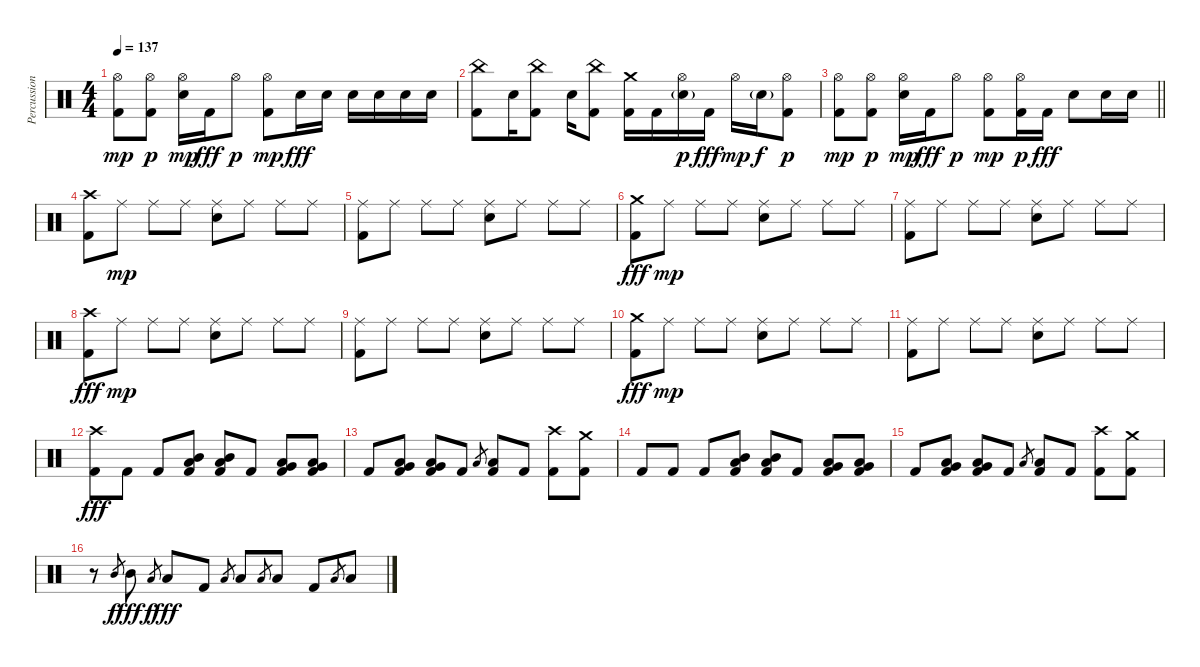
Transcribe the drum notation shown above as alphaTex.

\track ("Percussion" "Percussion") {instrument percussion}
\staff {score}
\articulation defaults
\ts (4 4)
\tempo 137
\clef neutral
\ks c
("Kick (hit) 2" "Hi-Hat (open)").8{dy mp} ("Kick (hit) 2" "Hi-Hat (open)").8{dy p} ("Electric Snare (hit)" "Hi-Hat (open)").16{dy mp} "Kick (hit) 2".16{dy fff} "Hi-Hat (open)".8{dy p} ("Kick (hit) 2" "Hi-Hat (open)").8{dy mp} "Electric Snare (hit)".16{dy fff} "Electric Snare (hit)".16 "Electric Snare (hit)".16 "Electric Snare (hit)".16 "Electric Snare (hit)".16 "Electric Snare (hit)".16 |
("Kick (hit) 2" "China (hit)").8 "Electric Snare (hit)".16 ("Kick (hit) 2" "China (hit)").8 "Electric Snare (hit)".16 ("Kick (hit) 2" "China (hit)").8 ("Kick (hit) 2" "Crash medium (hit)").16 "Kick (hit) 2".16 ("Electric Snare (hit)"{g} "Hi-Hat (open)").16{dy p} "Kick (hit) 2".16{dy fff} "Hi-Hat (open)".16{dy mp} "Electric Snare (hit)"{g}.16{dy f} ("Kick (hit) 2" "Hi-Hat (open)").8{dy p} |
\barLineRight lightlight
("Kick (hit) 2" "Hi-Hat (open)").8{dy mp} ("Kick (hit) 2" "Hi-Hat (open)").8{dy p} ("Electric Snare (hit)" "Hi-Hat (open)").16{dy mp} "Kick (hit) 2".16{dy fff} "Hi-Hat (open)".8{dy p} ("Kick (hit) 2" "Hi-Hat (open)").8{dy mp} ("Kick (hit) 2" "Hi-Hat (open)").16{dy p} "Kick (hit) 2".16{dy fff} "Electric Snare (hit)".8 "Electric Snare (hit)".16 "Electric Snare (hit)".16 |
("Kick (hit) 2" "Crash high (hit)").8 "Ride (middle)".8{dy mp} "Ride (middle)".8 "Ride (middle)".8 ("Electric Snare (hit)" "Ride (middle)").8 "Ride (middle)".8 "Ride (middle)".8 "Ride (middle)".8 |
("Kick (hit) 2" "Ride (middle)").8 "Ride (middle)".8 "Ride (middle)".8 "Ride (middle)".8 ("Electric Snare (hit)" "Ride (middle)").8 "Ride (middle)".8 "Ride (middle)".8 "Ride (middle)".8 |
("Kick (hit) 2" "Crash medium (hit)").8{dy fff} "Ride (middle)".8{dy mp} "Ride (middle)".8 "Ride (middle)".8 ("Electric Snare (hit)" "Ride (middle)").8 "Ride (middle)".8 "Ride (middle)".8 "Ride (middle)".8 |
("Kick (hit) 2" "Ride (middle)").8 "Ride (middle)".8 "Ride (middle)".8 "Ride (middle)".8 ("Electric Snare (hit)" "Ride (middle)").8 "Ride (middle)".8 "Ride (middle)".8 "Ride (middle)".8 |
("Kick (hit) 2" "Crash high (hit)").8{dy fff} "Ride (middle)".8{dy mp} "Ride (middle)".8 "Ride (middle)".8 ("Electric Snare (hit)" "Ride (middle)").8 "Ride (middle)".8 "Ride (middle)".8 "Ride (middle)".8 |
("Kick (hit) 2" "Ride (middle)").8 "Ride (middle)".8 "Ride (middle)".8 "Ride (middle)".8 ("Electric Snare (hit)" "Ride (middle)").8 "Ride (middle)".8 "Ride (middle)".8 "Ride (middle)".8 |
("Kick (hit) 2" "Crash medium (hit)").8{dy fff} "Ride (middle)".8{dy mp} "Ride (middle)".8 "Ride (middle)".8 ("Electric Snare (hit)" "Ride (middle)").8 "Ride (middle)".8 "Ride (middle)".8 "Ride (middle)".8 |
("Kick (hit) 2" "Ride (middle)").8 "Ride (middle)".8 "Ride (middle)".8 "Ride (middle)".8 ("Electric Snare (hit)" "Ride (middle)").8 "Ride (middle)".8 "Ride (middle)".8 "Ride (middle)".8 |
("Kick (hit) 2" "Crash high (hit)").8{dy fff} "Kick (hit) 2".8 "Kick (hit) 2".8 ("Kick (hit) 2" "Mid Tom (hit)" "Low Tom (hit)").8 ("Kick (hit) 2" "Mid Tom (hit)" "Low Tom (hit)").8 "Kick (hit) 2".8 ("Kick (hit) 2" "Low Tom (hit)" "Very Low Tom (hit)").8 ("Kick (hit) 2" "Low Tom (hit)" "Very Low Tom (hit)").8 |
"Kick (hit) 2".8 ("Kick (hit) 2" "Very Low Tom (hit)" "Low Floor Tom (hit)").8 ("Kick (hit) 2" "Very Low Tom (hit)" "Low Floor Tom (hit)").8 "Kick (hit) 2".8 "Low Floor Tom (hit)".8{gr} ("Kick (hit) 2" "Low Floor Tom (hit)").8 "Kick (hit) 2".8 ("Kick (hit) 2" "Crash high (hit)").8 ("Kick (hit) 2" "Crash medium (hit)").8 |
"Kick (hit) 2".8 "Kick (hit) 2".8 "Kick (hit) 2".8 ("Kick (hit) 2" "Mid Tom (hit)" "Low Tom (hit)").8 ("Kick (hit) 2" "Mid Tom (hit)" "Low Tom (hit)").8 "Kick (hit) 2".8 ("Kick (hit) 2" "Low Tom (hit)" "Very Low Tom (hit)").8 ("Kick (hit) 2" "Low Tom (hit)" "Very Low Tom (hit)").8 |
"Kick (hit) 2".8 ("Kick (hit) 2" "Very Low Tom (hit)" "Low Floor Tom (hit)").8 ("Kick (hit) 2" "Very Low Tom (hit)" "Low Floor Tom (hit)").8 "Kick (hit) 2".8 "Low Floor Tom (hit)".8{gr} ("Kick (hit) 2" "Low Floor Tom (hit)").8 "Kick (hit) 2".8 ("Kick (hit) 2" "Crash high (hit)").8 ("Kick (hit) 2" "Crash medium (hit)").8 |
r.8 "Mid Tom (hit)".8{gr dy f} "Mid Tom (hit)".8{dy fff} "Low Tom (hit)".8{gr dy f} "Low Tom (hit)".8{dy fff} "Kick (hit) 2".8 "Low Tom (hit)".8{gr} "Low Tom (hit)".8 "Low Tom (hit)".8{gr} "Low Tom (hit)".8 "Kick (hit) 2".8 "Low Tom (hit)".8{gr} "Low Tom (hit)".8
